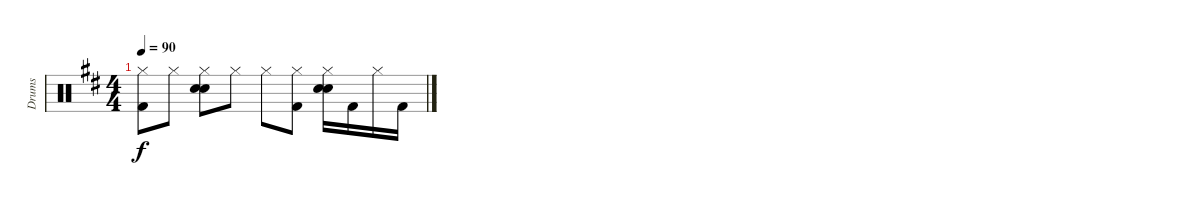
\track ("Drums" "Drums") {instrument percussion}
\staff {score}
\articulation defaults
\ts (4 4)
\tempo 90
\clef neutral
\ks d
("Hi-Hat (closed)" "Kick (hit) 2").8{dy f} "Hi-Hat (closed)".8 ("Hi-Hat (closed)" "Snare (hit) 2" "Electric Snare (hit)").8 "Hi-Hat (closed)".8 "Hi-Hat (closed)".8 ("Hi-Hat (closed)" "Kick (hit) 2").8 ("Hi-Hat (closed)" "Snare (hit) 2" "Electric Snare (hit)").16 "Kick (hit) 2".16 "Hi-Hat (closed)".16 "Kick (hit) 2".16
